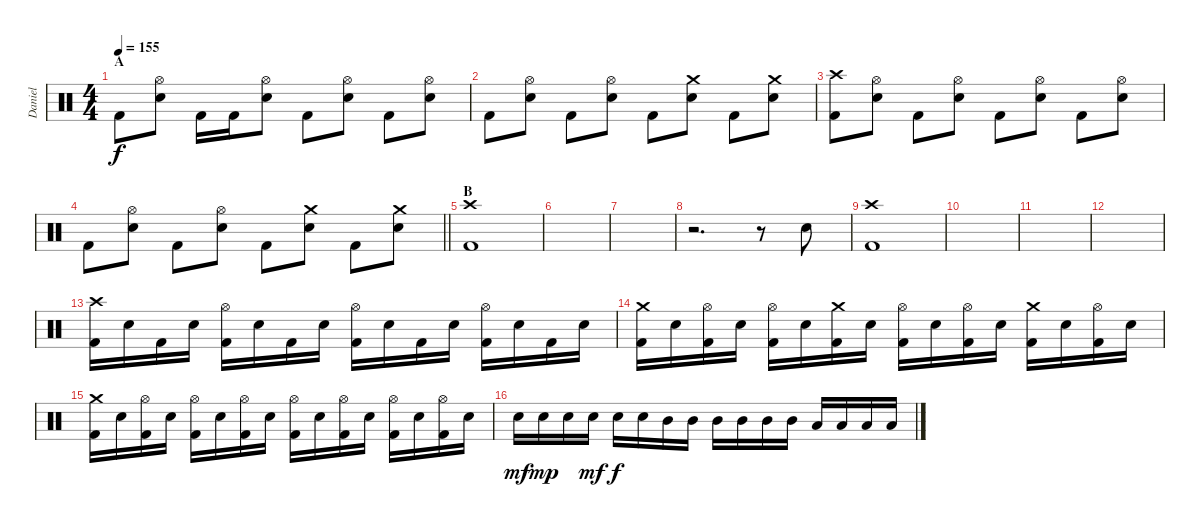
\track ("Daniel" "Daniel") {instrument percussion}
\staff {score}
\articulation defaults
\ts (4 4)
\section ("" "A")
\tempo 155
\clef neutral
\ks c "Kick (hit) 2".8{dy f}
("Hi-Hat (open)" "Snare (hit) 2").8 "Kick (hit) 2".16 "Kick (hit) 2".16 ("Hi-Hat (open)" "Snare (hit) 2").8 "Kick (hit) 2".8 ("Hi-Hat (open)" "Snare (hit) 2").8 "Kick (hit) 2".8 ("Hi-Hat (open)" "Snare (hit) 2").8 |
"Kick (hit) 2".8 ("Hi-Hat (open)" "Snare (hit) 2").8 "Kick (hit) 2".8 ("Hi-Hat (open)" "Snare (hit) 2").8 "Kick (hit) 2".8 ("Crash medium (hit)" "Snare (hit) 2").8 "Kick (hit) 2".8 ("Crash medium (hit)" "Snare (hit) 2").8 |
("Crash high (hit)" "Kick (hit) 2").8 ("Hi-Hat (open)" "Snare (hit) 2").8 "Kick (hit) 2".8 ("Hi-Hat (open)" "Snare (hit) 2").8 "Kick (hit) 2".8 ("Hi-Hat (open)" "Snare (hit) 2").8 "Kick (hit) 2".8 ("Hi-Hat (open)" "Snare (hit) 2").8 |
\barLineRight lightlight "Kick (hit) 2".8
("Hi-Hat (open)" "Snare (hit) 2").8 "Kick (hit) 2".8 ("Hi-Hat (open)" "Snare (hit) 2").8 "Kick (hit) 2".8 ("Crash medium (hit)" "Snare (hit) 2").8 "Kick (hit) 2".8 ("Crash medium (hit)" "Snare (hit) 2").8 |
\section ("" "B")
("Crash high (hit)" "Kick (hit) 2").1 |
|
|
r.2{d} r.8 "Snare (hit) 2".8 |
("Crash high (hit)" "Kick (hit) 2").1 |
|
|
|
("Crash high (hit)" "Kick (hit) 2").16 "Snare (hit) 2".16 "Kick (hit) 2".16 "Snare (hit) 2".16 ("Hi-Hat (open)" "Kick (hit) 2").16 "Snare (hit) 2".16 "Kick (hit) 2".16 "Snare (hit) 2".16 ("Hi-Hat (open)" "Kick (hit) 2").16 "Snare (hit) 2".16 "Kick (hit) 2".16 "Snare (hit) 2".16 ("Hi-Hat (open)" "Kick (hit) 2").16 "Snare (hit) 2".16 "Kick (hit) 2".16 "Snare (hit) 2".16 |
("Crash medium (hit)" "Kick (hit) 2").16 "Snare (hit) 2".16 ("Hi-Hat (open)" "Kick (hit) 2").16 "Snare (hit) 2".16 ("Hi-Hat (open)" "Kick (hit) 2").16 "Snare (hit) 2".16 ("Crash medium (hit)" "Kick (hit) 2").16 "Snare (hit) 2".16 ("Hi-Hat (open)" "Kick (hit) 2").16 "Snare (hit) 2".16 ("Hi-Hat (open)" "Kick (hit) 2").16 "Snare (hit) 2".16 ("Crash medium (hit)" "Kick (hit) 2").16 "Snare (hit) 2".16 ("Hi-Hat (open)" "Kick (hit) 2").16 "Snare (hit) 2".16 |
("Crash medium (hit)" "Kick (hit) 2").16 "Snare (hit) 2".16 ("Hi-Hat (open)" "Kick (hit) 2").16 "Snare (hit) 2".16 ("Hi-Hat (open)" "Kick (hit) 2").16 "Snare (hit) 2".16 ("Hi-Hat (open)" "Kick (hit) 2").16 "Snare (hit) 2".16 ("Hi-Hat (open)" "Kick (hit) 2").16 "Snare (hit) 2".16 ("Hi-Hat (open)" "Kick (hit) 2").16 "Snare (hit) 2".16 ("Hi-Hat (open)" "Kick (hit) 2").16 "Snare (hit) 2".16 ("Hi-Hat (open)" "Kick (hit) 2").16 "Snare (hit) 2".16 |
"Snare (hit) 2".16{dy mf} "Snare (hit) 2".16{dy mp} "Snare (hit) 2".16 "Snare (hit) 2".16{dy mf} "Snare (hit) 2".16{dy f} "Snare (hit) 2".16 "Mid Tom (hit)".16 "Mid Tom (hit)".16 "Mid Tom (hit)".16 "Mid Tom (hit)".16 "Mid Tom (hit)".16 "Mid Tom (hit)".16 "Low Tom (hit)".16 "Low Tom (hit)".16 "Low Tom (hit)".16 "Low Tom (hit)".16
